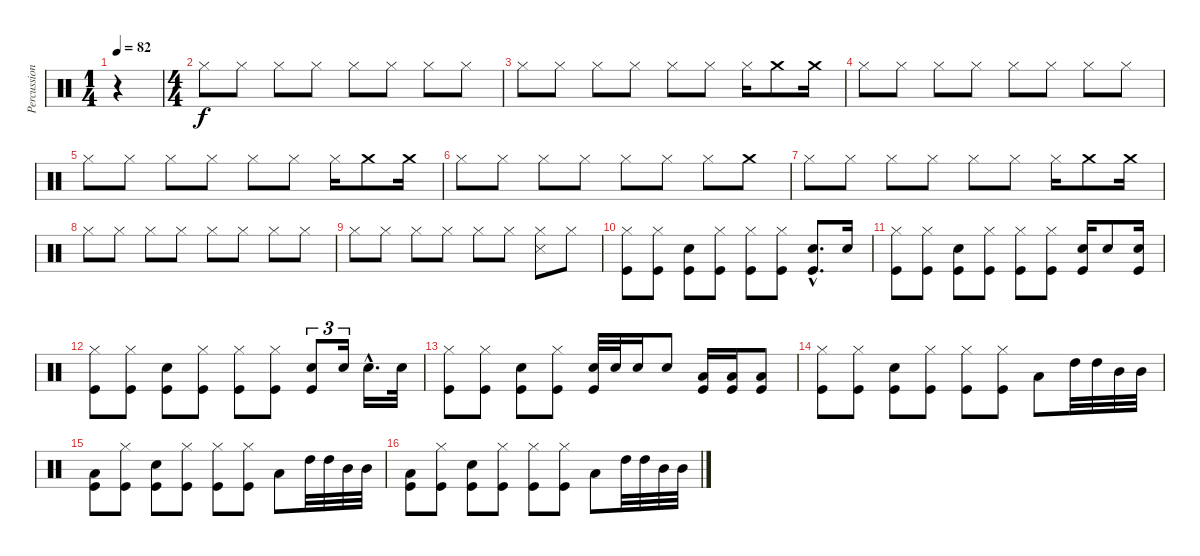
\track ("Percussion" "Percussion") {instrument percussion}
\staff {score}
\articulation defaults
\ts (1 4)
\tempo 82
\clef neutral
\ks c
r.4{dy f} |
\ts (4 4)
"Hi-Hat (closed)".8 "Hi-Hat (closed)".8 "Hi-Hat (closed)".8 "Hi-Hat (closed)".8 "Hi-Hat (closed)".8 "Hi-Hat (closed)".8 "Hi-Hat (closed)".8 "Hi-Hat (closed)".8 |
"Hi-Hat (closed)".8 "Hi-Hat (closed)".8 "Hi-Hat (closed)".8 "Hi-Hat (closed)".8 "Hi-Hat (closed)".8 "Hi-Hat (closed)".8 "Hi-Hat (closed)".16 "Crash medium (hit)".8 "Crash medium (hit)".16 |
"Hi-Hat (closed)".8 "Hi-Hat (closed)".8 "Hi-Hat (closed)".8 "Hi-Hat (closed)".8 "Hi-Hat (closed)".8 "Hi-Hat (closed)".8 "Hi-Hat (closed)".8 "Hi-Hat (closed)".8 |
"Hi-Hat (closed)".8 "Hi-Hat (closed)".8 "Hi-Hat (closed)".8 "Hi-Hat (closed)".8 "Hi-Hat (closed)".8 "Hi-Hat (closed)".8 "Hi-Hat (closed)".16 "Crash medium (hit)".8 "Crash medium (hit)".16 |
"Hi-Hat (closed)".8 "Hi-Hat (closed)".8 "Hi-Hat (closed)".8 "Hi-Hat (closed)".8 "Hi-Hat (closed)".8 "Hi-Hat (closed)".8 "Hi-Hat (closed)".8 "Crash medium (hit)".8 |
"Hi-Hat (closed)".8 "Hi-Hat (closed)".8 "Hi-Hat (closed)".8 "Hi-Hat (closed)".8 "Hi-Hat (closed)".8 "Hi-Hat (closed)".8 "Hi-Hat (closed)".16 "Crash medium (hit)".8 "Crash medium (hit)".16 |
"Hi-Hat (closed)".8 "Hi-Hat (closed)".8 "Hi-Hat (closed)".8 "Hi-Hat (closed)".8 "Hi-Hat (closed)".8 "Hi-Hat (closed)".8 "Hi-Hat (closed)".8 "Hi-Hat (closed)".8 |
"Hi-Hat (closed)".8 "Hi-Hat (closed)".8 "Hi-Hat (closed)".8 "Hi-Hat (closed)".8 "Hi-Hat (closed)".8 "Hi-Hat (closed)".8 ("Snare (side stick) 3" "Hi-Hat (closed)").8 "Hi-Hat (closed)".8 |
("Hi-Hat (closed)" "Kick (hit)").8 ("Hi-Hat (closed)" "Kick (hit)").8 ("Snare (hit) 2" "Kick (hit)").8 ("Hi-Hat (closed)" "Kick (hit)").8 ("Hi-Hat (closed)" "Kick (hit)").8 ("Hi-Hat (closed)" "Kick (hit)").8 ("Snare (hit) 2"{hac} "Kick (hit)"{hac}).8{d} "Snare (hit) 2".16 |
("Hi-Hat (closed)" "Kick (hit)").8 ("Hi-Hat (closed)" "Kick (hit)").8 ("Snare (hit) 2" "Kick (hit)").8 ("Hi-Hat (closed)" "Kick (hit)").8 ("Hi-Hat (closed)" "Kick (hit)").8 ("Hi-Hat (closed)" "Kick (hit)").8 ("Snare (hit) 2" "Kick (hit)").16 "Snare (hit) 2".8 ("Snare (hit) 2" "Kick (hit)").16 |
("Hi-Hat (closed)" "Kick (hit)").8 ("Hi-Hat (closed)" "Kick (hit)").8 ("Snare (hit) 2" "Kick (hit)").8 ("Hi-Hat (closed)" "Kick (hit)").8 ("Hi-Hat (closed)" "Kick (hit)").8 ("Hi-Hat (closed)" "Kick (hit)").8 ("Snare (hit) 2" "Kick (hit)").8{tu (3 2)} "Snare (hit) 2".16{tu (3 2)} "Snare (hit) 2"{hac}.16{d} "Snare (hit) 2".32 |
("Hi-Hat (closed)" "Kick (hit)").8 ("Hi-Hat (closed)" "Kick (hit)").8 ("Snare (hit) 2" "Kick (hit)").8 ("Hi-Hat (closed)" "Kick (hit)").8 ("Snare (hit) 2" "Kick (hit)").32 "Snare (hit) 2".32 "Snare (hit) 2".16 "Snare (hit) 2".8 ("Low Tom (hit)" "Kick (hit)").16 ("Low Tom (hit)" "Kick (hit)").16 ("Low Tom (hit)" "Kick (hit)").8 |
("Hi-Hat (closed)" "Kick (hit)").8 ("Hi-Hat (closed)" "Kick (hit)").8 ("Snare (hit) 2" "Kick (hit)").8 ("Hi-Hat (closed)" "Kick (hit)").8 ("Hi-Hat (closed)" "Kick (hit)").8 ("Hi-Hat (closed)" "Kick (hit)").8 "Low Tom (hit)".8 "High Tom (hit)".32 "High Tom (hit)".32 "Mid Tom (hit)".32 "Mid Tom (hit)".32 |
("Low Tom (hit)" "Kick (hit)").8 ("Hi-Hat (closed)" "Kick (hit)").8 ("Snare (hit) 2" "Kick (hit)").8 ("Hi-Hat (closed)" "Kick (hit)").8 ("Hi-Hat (closed)" "Kick (hit)").8 ("Hi-Hat (closed)" "Kick (hit)").8 "Low Tom (hit)".8 "High Tom (hit)".32 "High Tom (hit)".32 "Mid Tom (hit)".32 "Mid Tom (hit)".32 |
("Low Tom (hit)" "Kick (hit)").8 ("Hi-Hat (closed)" "Kick (hit)").8 ("Snare (hit) 2" "Kick (hit)").8 ("Hi-Hat (closed)" "Kick (hit)").8 ("Hi-Hat (closed)" "Kick (hit)").8 ("Hi-Hat (closed)" "Kick (hit)").8 "Low Tom (hit)".8 "High Tom (hit)".32 "High Tom (hit)".32 "Mid Tom (hit)".32 "Mid Tom (hit)".32
